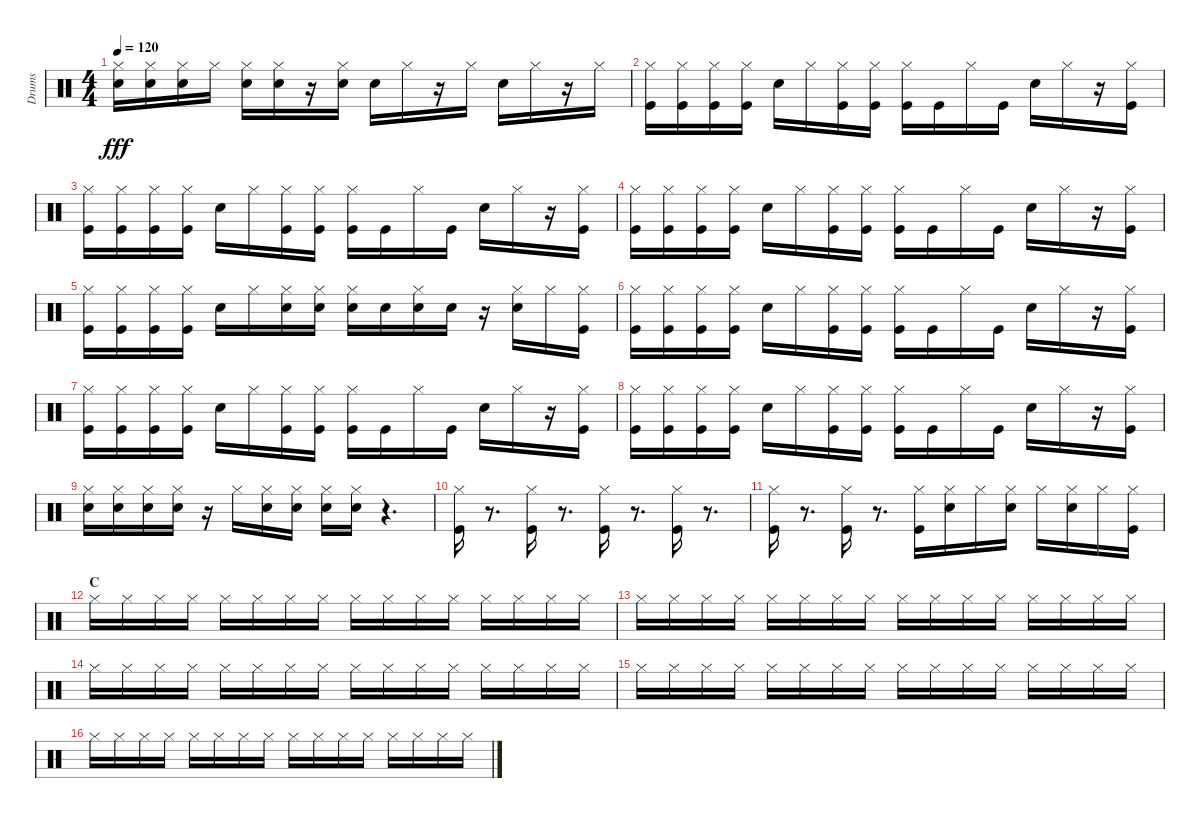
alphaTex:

\track ("Drums" "Drums") {instrument percussion}
\staff {score}
\articulation defaults
\ts (4 4)
\tempo 120
\clef neutral
\ks c
("Snare (hit) 2" "Hi-Hat (closed)").16{dy fff} ("Snare (hit) 2" "Hi-Hat (closed)").16 ("Snare (hit) 2" "Hi-Hat (closed)").16 "Hi-Hat (closed)".16 ("Snare (hit) 2" "Hi-Hat (closed)").16 ("Snare (hit) 2" "Hi-Hat (closed)").16 r.16 ("Snare (hit) 2" "Hi-Hat (closed)").16 "Snare (hit) 2".16 "Hi-Hat (closed)".16 r.16 "Hi-Hat (closed)".16 "Snare (hit) 2".16 "Hi-Hat (closed)".16 r.16 "Hi-Hat (closed)".16 |
("Kick (hit)" "Hi-Hat (closed)").16 ("Kick (hit)" "Hi-Hat (closed)").16 ("Kick (hit)" "Hi-Hat (closed)").16 ("Kick (hit)" "Hi-Hat (closed)").16 "Snare (hit) 2".16 "Hi-Hat (closed)".16 ("Kick (hit)" "Hi-Hat (closed)").16 ("Kick (hit)" "Hi-Hat (closed)").16 ("Kick (hit)" "Hi-Hat (closed)").16 "Kick (hit)".16 "Hi-Hat (closed)".16 "Kick (hit)".16 "Snare (hit) 2".16 "Hi-Hat (closed)".16 r.16 ("Kick (hit)" "Hi-Hat (closed)").16 |
("Kick (hit)" "Hi-Hat (closed)").16 ("Kick (hit)" "Hi-Hat (closed)").16 ("Kick (hit)" "Hi-Hat (closed)").16 ("Kick (hit)" "Hi-Hat (closed)").16 "Snare (hit) 2".16 "Hi-Hat (closed)".16 ("Kick (hit)" "Hi-Hat (closed)").16 ("Kick (hit)" "Hi-Hat (closed)").16 ("Kick (hit)" "Hi-Hat (closed)").16 "Kick (hit)".16 "Hi-Hat (closed)".16 "Kick (hit)".16 "Snare (hit) 2".16 "Hi-Hat (closed)".16 r.16 ("Kick (hit)" "Hi-Hat (closed)").16 |
("Kick (hit)" "Hi-Hat (closed)").16 ("Kick (hit)" "Hi-Hat (closed)").16 ("Kick (hit)" "Hi-Hat (closed)").16 ("Kick (hit)" "Hi-Hat (closed)").16 "Snare (hit) 2".16 "Hi-Hat (closed)".16 ("Kick (hit)" "Hi-Hat (closed)").16 ("Kick (hit)" "Hi-Hat (closed)").16 ("Kick (hit)" "Hi-Hat (closed)").16 "Kick (hit)".16 "Hi-Hat (closed)".16 "Kick (hit)".16 "Snare (hit) 2".16 "Hi-Hat (closed)".16 r.16 ("Kick (hit)" "Hi-Hat (closed)").16 |
("Kick (hit)" "Hi-Hat (closed)").16 ("Kick (hit)" "Hi-Hat (closed)").16 ("Kick (hit)" "Hi-Hat (closed)").16 ("Kick (hit)" "Hi-Hat (closed)").16 "Snare (hit) 2".16 "Hi-Hat (closed)".16 ("Snare (hit) 2" "Hi-Hat (closed)").16 ("Snare (hit) 2" "Hi-Hat (closed)").16 ("Snare (hit) 2" "Hi-Hat (closed)").16 "Snare (hit) 2".16 ("Snare (hit) 2" "Hi-Hat (closed)").16 "Snare (hit) 2".16 r.16 ("Snare (hit) 2" "Hi-Hat (closed)").16 "Hi-Hat (closed)".16 ("Kick (hit)" "Hi-Hat (closed)").16 |
("Kick (hit)" "Hi-Hat (closed)").16 ("Kick (hit)" "Hi-Hat (closed)").16 ("Kick (hit)" "Hi-Hat (closed)").16 ("Kick (hit)" "Hi-Hat (closed)").16 "Snare (hit) 2".16 "Hi-Hat (closed)".16 ("Kick (hit)" "Hi-Hat (closed)").16 ("Kick (hit)" "Hi-Hat (closed)").16 ("Kick (hit)" "Hi-Hat (closed)").16 "Kick (hit)".16 "Hi-Hat (closed)".16 "Kick (hit)".16 "Snare (hit) 2".16 "Hi-Hat (closed)".16 r.16 ("Kick (hit)" "Hi-Hat (closed)").16 |
("Kick (hit)" "Hi-Hat (closed)").16 ("Kick (hit)" "Hi-Hat (closed)").16 ("Kick (hit)" "Hi-Hat (closed)").16 ("Kick (hit)" "Hi-Hat (closed)").16 "Snare (hit) 2".16 "Hi-Hat (closed)".16 ("Kick (hit)" "Hi-Hat (closed)").16 ("Kick (hit)" "Hi-Hat (closed)").16 ("Kick (hit)" "Hi-Hat (closed)").16 "Kick (hit)".16 "Hi-Hat (closed)".16 "Kick (hit)".16 "Snare (hit) 2".16 "Hi-Hat (closed)".16 r.16 ("Kick (hit)" "Hi-Hat (closed)").16 |
("Kick (hit)" "Hi-Hat (closed)").16 ("Kick (hit)" "Hi-Hat (closed)").16 ("Kick (hit)" "Hi-Hat (closed)").16 ("Kick (hit)" "Hi-Hat (closed)").16 "Snare (hit) 2".16 "Hi-Hat (closed)".16 ("Kick (hit)" "Hi-Hat (closed)").16 ("Kick (hit)" "Hi-Hat (closed)").16 ("Kick (hit)" "Hi-Hat (closed)").16 "Kick (hit)".16 "Hi-Hat (closed)".16 "Kick (hit)".16 "Snare (hit) 2".16 "Hi-Hat (closed)".16 r.16 ("Kick (hit)" "Hi-Hat (closed)").16 |
("Snare (hit) 2" "Hi-Hat (closed)").16 ("Snare (hit) 2" "Hi-Hat (closed)").16 ("Snare (hit) 2" "Hi-Hat (closed)").16 ("Snare (hit) 2" "Hi-Hat (closed)").16 r.16 "Hi-Hat (closed)".16 ("Snare (hit) 2" "Hi-Hat (closed)").16 ("Snare (hit) 2" "Hi-Hat (closed)").16 ("Snare (hit) 2" "Hi-Hat (closed)").16 ("Snare (hit) 2" "Hi-Hat (closed)").16 r.4{d} |
("Kick (hit)" "Hi-Hat (closed)").16 r.8{d} ("Kick (hit)" "Hi-Hat (closed)").16 r.8{d} ("Kick (hit)" "Hi-Hat (closed)").16 r.8{d} ("Kick (hit)" "Hi-Hat (closed)").16 r.8{d} |
("Kick (hit)" "Hi-Hat (closed)").16 r.8{d} ("Kick (hit)" "Hi-Hat (closed)").16 r.8{d} ("Kick (hit)" "Hi-Hat (closed)").16 ("Snare (hit) 2" "Hi-Hat (closed)").16 "Hi-Hat (closed)".16 ("Snare (hit) 2" "Hi-Hat (closed)").16 "Hi-Hat (closed)".16 ("Snare (hit) 2" "Hi-Hat (closed)").16 "Hi-Hat (closed)".16 ("Kick (hit)" "Hi-Hat (closed)").16 |
\section ("" "C")
"Hi-Hat (closed)".16 "Hi-Hat (closed)".16 "Hi-Hat (closed)".16 "Hi-Hat (closed)".16 "Hi-Hat (closed)".16 "Hi-Hat (closed)".16 "Hi-Hat (closed)".16 "Hi-Hat (closed)".16 "Hi-Hat (closed)".16 "Hi-Hat (closed)".16 "Hi-Hat (closed)".16 "Hi-Hat (closed)".16 "Hi-Hat (closed)".16 "Hi-Hat (closed)".16 "Hi-Hat (closed)".16 "Hi-Hat (closed)".16 |
"Hi-Hat (closed)".16 "Hi-Hat (closed)".16 "Hi-Hat (closed)".16 "Hi-Hat (closed)".16 "Hi-Hat (closed)".16 "Hi-Hat (closed)".16 "Hi-Hat (closed)".16 "Hi-Hat (closed)".16 "Hi-Hat (closed)".16 "Hi-Hat (closed)".16 "Hi-Hat (closed)".16 "Hi-Hat (closed)".16 "Hi-Hat (closed)".16 "Hi-Hat (closed)".16 "Hi-Hat (closed)".16 "Hi-Hat (closed)".16 |
"Hi-Hat (closed)".16 "Hi-Hat (closed)".16 "Hi-Hat (closed)".16 "Hi-Hat (closed)".16 "Hi-Hat (closed)".16 "Hi-Hat (closed)".16 "Hi-Hat (closed)".16 "Hi-Hat (closed)".16 "Hi-Hat (closed)".16 "Hi-Hat (closed)".16 "Hi-Hat (closed)".16 "Hi-Hat (closed)".16 "Hi-Hat (closed)".16 "Hi-Hat (closed)".16 "Hi-Hat (closed)".16 "Hi-Hat (closed)".16 |
"Hi-Hat (closed)".16 "Hi-Hat (closed)".16 "Hi-Hat (closed)".16 "Hi-Hat (closed)".16 "Hi-Hat (closed)".16 "Hi-Hat (closed)".16 "Hi-Hat (closed)".16 "Hi-Hat (closed)".16 "Hi-Hat (closed)".16 "Hi-Hat (closed)".16 "Hi-Hat (closed)".16 "Hi-Hat (closed)".16 "Hi-Hat (closed)".16 "Hi-Hat (closed)".16 "Hi-Hat (closed)".16 "Hi-Hat (closed)".16 |
"Hi-Hat (closed)".16 "Hi-Hat (closed)".16 "Hi-Hat (closed)".16 "Hi-Hat (closed)".16 "Hi-Hat (closed)".16 "Hi-Hat (closed)".16 "Hi-Hat (closed)".16 "Hi-Hat (closed)".16 "Hi-Hat (closed)".16 "Hi-Hat (closed)".16 "Hi-Hat (closed)".16 "Hi-Hat (closed)".16 "Hi-Hat (closed)".16 "Hi-Hat (closed)".16 "Hi-Hat (closed)".16 "Hi-Hat (closed)".16
